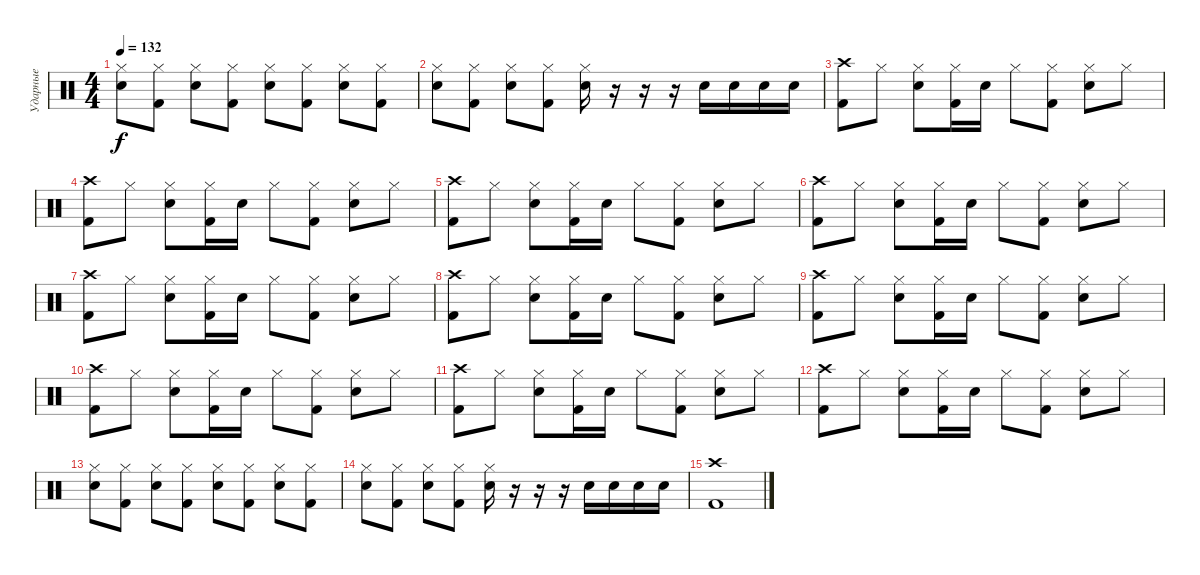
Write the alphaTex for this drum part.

\track ("Ударные" "Ударные") {instrument percussion}
\staff {score}
\articulation defaults
\ts (4 4)
\tempo 132
\clef neutral
\ks c
("Electric Snare (hit)" "Hi-Hat (closed)").8{dy f} ("Kick (hit) 2" "Hi-Hat (closed)").8 ("Electric Snare (hit)" "Hi-Hat (closed)").8 ("Kick (hit) 2" "Hi-Hat (closed)").8 ("Electric Snare (hit)" "Hi-Hat (closed)").8 ("Kick (hit) 2" "Hi-Hat (closed)").8 ("Electric Snare (hit)" "Hi-Hat (closed)").8 ("Kick (hit) 2" "Hi-Hat (closed)").8 |
("Electric Snare (hit)" "Hi-Hat (closed)").8 ("Kick (hit) 2" "Hi-Hat (closed)").8 ("Electric Snare (hit)" "Hi-Hat (closed)").8 ("Kick (hit) 2" "Hi-Hat (closed)").8 ("Electric Snare (hit)" "Hi-Hat (closed)").16 r.16 r.16 r.16 "Electric Snare (hit)".16 "Electric Snare (hit)".16 "Electric Snare (hit)".16 "Electric Snare (hit)".16 |
("Kick (hit) 2" "Crash high (hit)").8 "Hi-Hat (closed)".8 ("Electric Snare (hit)" "Hi-Hat (closed)").8 ("Kick (hit) 2" "Hi-Hat (closed)").16 "Electric Snare (hit)".16 "Hi-Hat (closed)".8 ("Kick (hit) 2" "Hi-Hat (closed)").8 ("Electric Snare (hit)" "Hi-Hat (closed)").8 "Hi-Hat (closed)".8 |
("Kick (hit) 2" "Crash high (hit)").8 "Hi-Hat (closed)".8 ("Electric Snare (hit)" "Hi-Hat (closed)").8 ("Kick (hit) 2" "Hi-Hat (closed)").16 "Electric Snare (hit)".16 "Hi-Hat (closed)".8 ("Kick (hit) 2" "Hi-Hat (closed)").8 ("Electric Snare (hit)" "Hi-Hat (closed)").8 "Hi-Hat (closed)".8 |
("Kick (hit) 2" "Crash high (hit)").8 "Hi-Hat (closed)".8 ("Electric Snare (hit)" "Hi-Hat (closed)").8 ("Kick (hit) 2" "Hi-Hat (closed)").16 "Electric Snare (hit)".16 "Hi-Hat (closed)".8 ("Kick (hit) 2" "Hi-Hat (closed)").8 ("Electric Snare (hit)" "Hi-Hat (closed)").8 "Hi-Hat (closed)".8 |
("Kick (hit) 2" "Crash high (hit)").8 "Hi-Hat (closed)".8 ("Electric Snare (hit)" "Hi-Hat (closed)").8 ("Kick (hit) 2" "Hi-Hat (closed)").16 "Electric Snare (hit)".16 "Hi-Hat (closed)".8 ("Kick (hit) 2" "Hi-Hat (closed)").8 ("Electric Snare (hit)" "Hi-Hat (closed)").8 "Hi-Hat (closed)".8 |
("Kick (hit) 2" "Crash high (hit)").8 "Hi-Hat (closed)".8 ("Electric Snare (hit)" "Hi-Hat (closed)").8 ("Kick (hit) 2" "Hi-Hat (closed)").16 "Electric Snare (hit)".16 "Hi-Hat (closed)".8 ("Kick (hit) 2" "Hi-Hat (closed)").8 ("Electric Snare (hit)" "Hi-Hat (closed)").8 "Hi-Hat (closed)".8 |
("Kick (hit) 2" "Crash high (hit)").8 "Hi-Hat (closed)".8 ("Electric Snare (hit)" "Hi-Hat (closed)").8 ("Kick (hit) 2" "Hi-Hat (closed)").16 "Electric Snare (hit)".16 "Hi-Hat (closed)".8 ("Kick (hit) 2" "Hi-Hat (closed)").8 ("Electric Snare (hit)" "Hi-Hat (closed)").8 "Hi-Hat (closed)".8 |
("Kick (hit) 2" "Crash high (hit)").8 "Hi-Hat (closed)".8 ("Electric Snare (hit)" "Hi-Hat (closed)").8 ("Kick (hit) 2" "Hi-Hat (closed)").16 "Electric Snare (hit)".16 "Hi-Hat (closed)".8 ("Kick (hit) 2" "Hi-Hat (closed)").8 ("Electric Snare (hit)" "Hi-Hat (closed)").8 "Hi-Hat (closed)".8 |
("Kick (hit) 2" "Crash high (hit)").8 "Hi-Hat (closed)".8 ("Electric Snare (hit)" "Hi-Hat (closed)").8 ("Kick (hit) 2" "Hi-Hat (closed)").16 "Electric Snare (hit)".16 "Hi-Hat (closed)".8 ("Kick (hit) 2" "Hi-Hat (closed)").8 ("Electric Snare (hit)" "Hi-Hat (closed)").8 "Hi-Hat (closed)".8 |
("Kick (hit) 2" "Crash high (hit)").8 "Hi-Hat (closed)".8 ("Electric Snare (hit)" "Hi-Hat (closed)").8 ("Kick (hit) 2" "Hi-Hat (closed)").16 "Electric Snare (hit)".16 "Hi-Hat (closed)".8 ("Kick (hit) 2" "Hi-Hat (closed)").8 ("Electric Snare (hit)" "Hi-Hat (closed)").8 "Hi-Hat (closed)".8 |
("Kick (hit) 2" "Crash high (hit)").8 "Hi-Hat (closed)".8 ("Electric Snare (hit)" "Hi-Hat (closed)").8 ("Kick (hit) 2" "Hi-Hat (closed)").16 "Electric Snare (hit)".16 "Hi-Hat (closed)".8 ("Kick (hit) 2" "Hi-Hat (closed)").8 ("Electric Snare (hit)" "Hi-Hat (closed)").8 "Hi-Hat (closed)".8 |
("Electric Snare (hit)" "Hi-Hat (closed)").8 ("Kick (hit) 2" "Hi-Hat (closed)").8 ("Electric Snare (hit)" "Hi-Hat (closed)").8 ("Kick (hit) 2" "Hi-Hat (closed)").8 ("Electric Snare (hit)" "Hi-Hat (closed)").8 ("Kick (hit) 2" "Hi-Hat (closed)").8 ("Electric Snare (hit)" "Hi-Hat (closed)").8 ("Kick (hit) 2" "Hi-Hat (closed)").8 |
("Electric Snare (hit)" "Hi-Hat (closed)").8 ("Kick (hit) 2" "Hi-Hat (closed)").8 ("Electric Snare (hit)" "Hi-Hat (closed)").8 ("Kick (hit) 2" "Hi-Hat (closed)").8 ("Electric Snare (hit)" "Hi-Hat (closed)").16 r.16 r.16 r.16 "Electric Snare (hit)".16 "Electric Snare (hit)".16 "Electric Snare (hit)".16 "Electric Snare (hit)".16 |
("Kick (hit) 2" "Crash high (hit)").1
